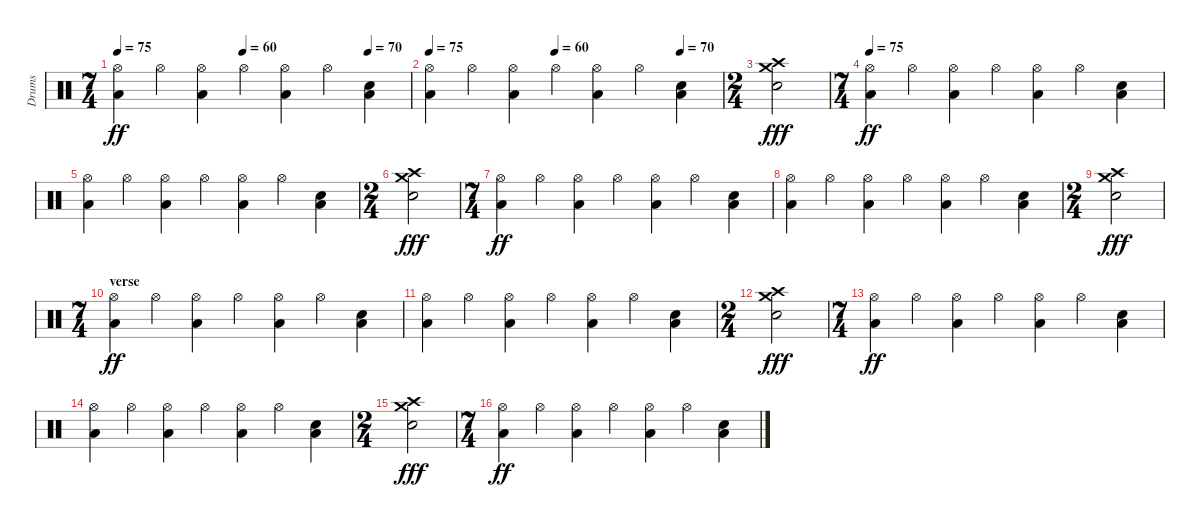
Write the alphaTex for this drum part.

\track ("Drums" "Drums") {instrument percussion}
\staff {score}
\articulation defaults
\ts (7 4)
\tempo 75
\tempo (60 0.42857142857142855)
\tempo (70 0.8571428571428571)
\clef neutral
\ks c
("Hi-Hat (open)" "Low Tom (hit)").4{dy ff} "Hi-Hat (open)".4 ("Low Tom (hit)" "Hi-Hat (open)").4 "Hi-Hat (open)".4 ("Hi-Hat (open)" "Low Tom (hit)").4 "Hi-Hat (open)".4 ("Electric Snare (hit)" "Low Tom (hit)").4 |
\tempo 75
\tempo (60 0.42857142857142855)
\tempo (70 0.8571428571428571)
("Hi-Hat (open)" "Low Tom (hit)").4 "Hi-Hat (open)".4 ("Low Tom (hit)" "Hi-Hat (open)").4 "Hi-Hat (open)".4 ("Hi-Hat (open)" "Low Tom (hit)").4 "Hi-Hat (open)".4 ("Electric Snare (hit)" "Low Tom (hit)").4 |
\ts (2 4)
("Crash high (hit)" "Crash medium (hit)" "Electric Snare (hit)").2{dy fff} |
\ts (7 4)
\tempo 75
("Hi-Hat (open)" "Low Tom (hit)").4{dy ff} "Hi-Hat (open)".4 ("Low Tom (hit)" "Hi-Hat (open)").4 "Hi-Hat (open)".4 ("Hi-Hat (open)" "Low Tom (hit)").4 "Hi-Hat (open)".4 ("Electric Snare (hit)" "Low Tom (hit)").4 |
("Hi-Hat (open)" "Low Tom (hit)").4 "Hi-Hat (open)".4 ("Low Tom (hit)" "Hi-Hat (open)").4 "Hi-Hat (open)".4 ("Hi-Hat (open)" "Low Tom (hit)").4 "Hi-Hat (open)".4 ("Electric Snare (hit)" "Low Tom (hit)").4 |
\ts (2 4)
("Crash high (hit)" "Crash medium (hit)" "Electric Snare (hit)").2{dy fff} |
\ts (7 4)
("Hi-Hat (open)" "Low Tom (hit)").4{dy ff} "Hi-Hat (open)".4 ("Low Tom (hit)" "Hi-Hat (open)").4 "Hi-Hat (open)".4 ("Hi-Hat (open)" "Low Tom (hit)").4 "Hi-Hat (open)".4 ("Electric Snare (hit)" "Low Tom (hit)").4 |
("Hi-Hat (open)" "Low Tom (hit)").4 "Hi-Hat (open)".4 ("Low Tom (hit)" "Hi-Hat (open)").4 "Hi-Hat (open)".4 ("Hi-Hat (open)" "Low Tom (hit)").4 "Hi-Hat (open)".4 ("Electric Snare (hit)" "Low Tom (hit)").4 |
\ts (2 4)
("Crash high (hit)" "Crash medium (hit)" "Electric Snare (hit)").2{dy fff} |
\ts (7 4)
\section ("" "verse")
("Hi-Hat (open)" "Low Tom (hit)").4{dy ff} "Hi-Hat (open)".4 ("Low Tom (hit)" "Hi-Hat (open)").4 "Hi-Hat (open)".4 ("Hi-Hat (open)" "Low Tom (hit)").4 "Hi-Hat (open)".4 ("Electric Snare (hit)" "Low Tom (hit)").4 |
("Hi-Hat (open)" "Low Tom (hit)").4 "Hi-Hat (open)".4 ("Low Tom (hit)" "Hi-Hat (open)").4 "Hi-Hat (open)".4 ("Hi-Hat (open)" "Low Tom (hit)").4 "Hi-Hat (open)".4 ("Electric Snare (hit)" "Low Tom (hit)").4 |
\ts (2 4)
("Crash high (hit)" "Crash medium (hit)" "Electric Snare (hit)").2{dy fff} |
\ts (7 4)
("Hi-Hat (open)" "Low Tom (hit)").4{dy ff} "Hi-Hat (open)".4 ("Low Tom (hit)" "Hi-Hat (open)").4 "Hi-Hat (open)".4 ("Hi-Hat (open)" "Low Tom (hit)").4 "Hi-Hat (open)".4 ("Electric Snare (hit)" "Low Tom (hit)").4 |
("Hi-Hat (open)" "Low Tom (hit)").4 "Hi-Hat (open)".4 ("Low Tom (hit)" "Hi-Hat (open)").4 "Hi-Hat (open)".4 ("Hi-Hat (open)" "Low Tom (hit)").4 "Hi-Hat (open)".4 ("Electric Snare (hit)" "Low Tom (hit)").4 |
\ts (2 4)
("Crash high (hit)" "Crash medium (hit)" "Electric Snare (hit)").2{dy fff} |
\ts (7 4)
("Hi-Hat (open)" "Low Tom (hit)").4{dy ff} "Hi-Hat (open)".4 ("Low Tom (hit)" "Hi-Hat (open)").4 "Hi-Hat (open)".4 ("Hi-Hat (open)" "Low Tom (hit)").4 "Hi-Hat (open)".4 ("Electric Snare (hit)" "Low Tom (hit)").4
